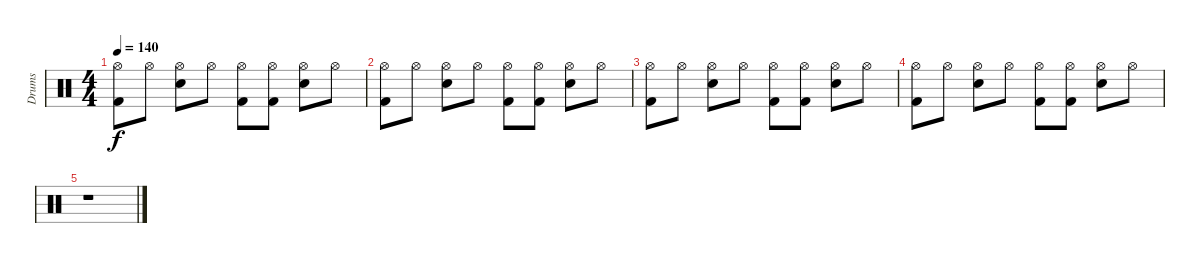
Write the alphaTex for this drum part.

\track ("Drums" "Drums") {instrument percussion}
\staff {score}
\articulation defaults
\ts (4 4)
\tempo 140
\clef neutral
\ks c
("Hi-Hat (open)" "Kick (hit) 2").8{dy f volume 8} "Hi-Hat (open)".8{volume 8} ("Hi-Hat (open)" "Snare (hit) 2").8{volume 8} "Hi-Hat (open)".8{volume 8} ("Hi-Hat (open)" "Kick (hit) 2").8{volume 7} ("Hi-Hat (open)" "Kick (hit) 2").8{volume 7} ("Hi-Hat (open)" "Snare (hit) 2").8{volume 7} "Hi-Hat (open)".8{volume 6} |
("Hi-Hat (open)" "Kick (hit) 2").8{volume 6} "Hi-Hat (open)".8{volume 6} ("Hi-Hat (open)" "Snare (hit) 2").8{volume 6} "Hi-Hat (open)".8{volume 5} ("Hi-Hat (open)" "Kick (hit) 2").8{volume 5} ("Hi-Hat (open)" "Kick (hit) 2").8{volume 5} ("Hi-Hat (open)" "Snare (hit) 2").8{volume 5} "Hi-Hat (open)".8{volume 4} |
("Hi-Hat (open)" "Kick (hit) 2").8{volume 4} "Hi-Hat (open)".8{volume 4} ("Hi-Hat (open)" "Snare (hit) 2").8{volume 4} "Hi-Hat (open)".8{volume 3} ("Hi-Hat (open)" "Kick (hit) 2").8{volume 3} ("Hi-Hat (open)" "Kick (hit) 2").8{volume 3} ("Hi-Hat (open)" "Snare (hit) 2").8{volume 2} "Hi-Hat (open)".8{volume 2} |
("Hi-Hat (open)" "Kick (hit) 2").8{volume 2} "Hi-Hat (open)".8{volume 2} ("Hi-Hat (open)" "Snare (hit) 2").8{volume 1} "Hi-Hat (open)".8{volume 1} ("Hi-Hat (open)" "Kick (hit) 2").8{volume 1} ("Hi-Hat (open)" "Kick (hit) 2").8{volume 1} ("Hi-Hat (open)" "Snare (hit) 2").8{volume 0} "Hi-Hat (open)".8{volume 0} |
r.1
